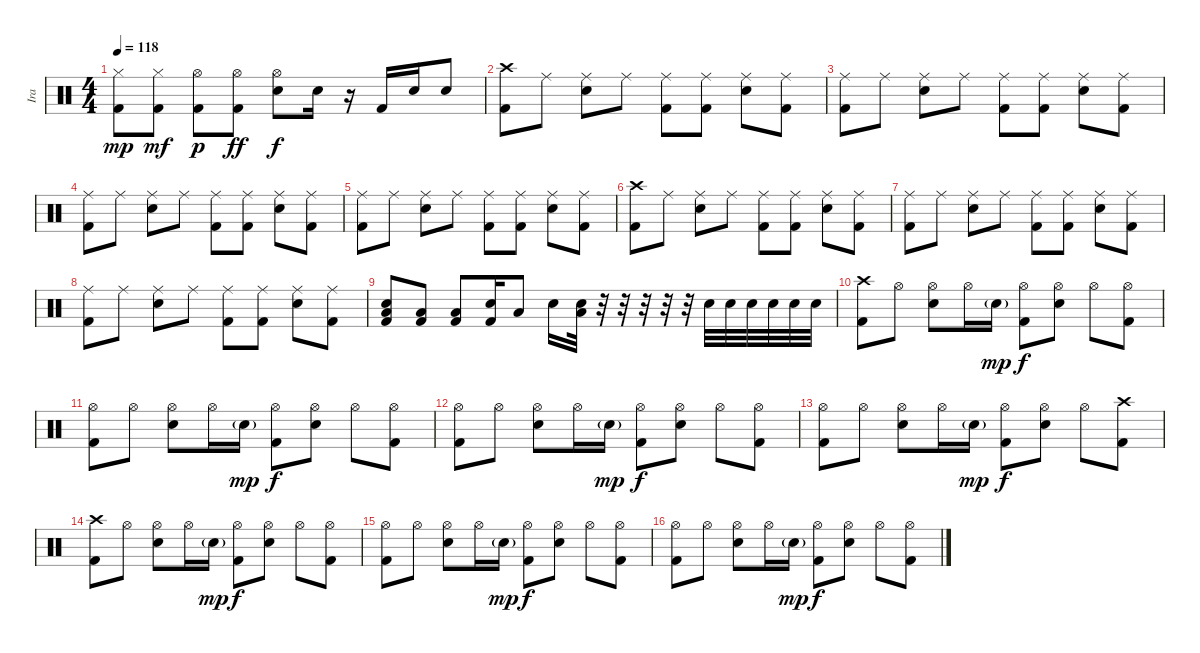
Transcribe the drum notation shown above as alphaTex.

\track ("Ira" "Ira") {instrument percussion}
\staff {score}
\articulation defaults
\ts (4 4)
\tempo 118
\clef neutral
\ks c
("Hi-Hat (closed)" "Kick (hit) 2").8{dy mp} ("Hi-Hat (closed)" "Kick (hit) 2").8{dy mf} ("Hi-Hat (open)" "Kick (hit) 2").8{dy p} ("Hi-Hat (open)" "Kick (hit) 2").8{dy ff} ("Hi-Hat (open)" "Electric Snare (hit)").8{dy f} "Electric Snare (hit)".16 r.16 "Kick (hit) 2".16 "Electric Snare (hit)".16 "Electric Snare (hit)".8 |
("Crash high (hit)" "Kick (hit) 2").8 "Ride (middle)".8 ("Ride (middle)" "Electric Snare (hit)").8 "Ride (middle)".8 ("Ride (middle)" "Kick (hit) 2").8 ("Ride (middle)" "Kick (hit) 2").8 ("Ride (middle)" "Electric Snare (hit)").8 ("Ride (middle)" "Kick (hit) 2").8 |
("Ride (middle)" "Kick (hit) 2").8 "Ride (middle)".8 ("Ride (middle)" "Electric Snare (hit)").8 "Ride (middle)".8 ("Ride (middle)" "Kick (hit) 2").8 ("Ride (middle)" "Kick (hit) 2").8 ("Ride (middle)" "Electric Snare (hit)").8 ("Ride (middle)" "Kick (hit) 2").8 |
("Ride (middle)" "Kick (hit) 2").8 "Ride (middle)".8 ("Ride (middle)" "Electric Snare (hit)").8 "Ride (middle)".8 ("Ride (middle)" "Kick (hit) 2").8 ("Ride (middle)" "Kick (hit) 2").8 ("Ride (middle)" "Electric Snare (hit)").8 ("Ride (middle)" "Kick (hit) 2").8 |
("Ride (middle)" "Kick (hit) 2").8 "Ride (middle)".8 ("Ride (middle)" "Electric Snare (hit)").8 "Ride (middle)".8 ("Ride (middle)" "Kick (hit) 2").8 ("Ride (middle)" "Kick (hit) 2").8 ("Ride (middle)" "Electric Snare (hit)").8 ("Ride (middle)" "Kick (hit) 2").8 |
("Crash high (hit)" "Kick (hit) 2").8 "Ride (middle)".8 ("Ride (middle)" "Electric Snare (hit)").8 "Ride (middle)".8 ("Ride (middle)" "Kick (hit) 2").8 ("Ride (middle)" "Kick (hit) 2").8 ("Ride (middle)" "Electric Snare (hit)").8 ("Ride (middle)" "Kick (hit) 2").8 |
("Ride (middle)" "Kick (hit) 2").8 "Ride (middle)".8 ("Ride (middle)" "Electric Snare (hit)").8 "Ride (middle)".8 ("Ride (middle)" "Kick (hit) 2").8 ("Ride (middle)" "Kick (hit) 2").8 ("Ride (middle)" "Electric Snare (hit)").8 ("Ride (middle)" "Kick (hit) 2").8 |
("Ride (middle)" "Kick (hit) 2").8 "Ride (middle)".8 ("Ride (middle)" "Electric Snare (hit)").8 "Ride (middle)".8 ("Ride (middle)" "Kick (hit) 2").8 ("Ride (middle)" "Kick (hit) 2").8 ("Ride (middle)" "Electric Snare (hit)").8 ("Ride (middle)" "Kick (hit) 2").8 |
("Low Floor Tom (hit)" "Electric Snare (hit)" "Kick (hit) 2").8 ("Low Floor Tom (hit)" "Kick (hit) 2").8 ("Low Floor Tom (hit)" "Kick (hit) 2").8 ("Electric Snare (hit)" "Kick (hit) 2").16 "Low Floor Tom (hit)".8 "Electric Snare (hit)".16 ("Low Floor Tom (hit)" "Electric Snare (hit)").32 r.32 r.32 r.32 r.32 r.32 "Electric Snare (hit)".32 "Electric Snare (hit)".32 "Electric Snare (hit)".32 "Electric Snare (hit)".32 "Electric Snare (hit)".32 "Electric Snare (hit)".32 |
("Crash high (hit)" "Kick (hit) 2").8 "Hi-Hat (open)".8 ("Hi-Hat (open)" "Electric Snare (hit)").8 "Hi-Hat (open)".16 "Electric Snare (hit)"{g}.16{dy mp} ("Hi-Hat (open)" "Kick (hit) 2").8{dy f} ("Hi-Hat (open)" "Electric Snare (hit)").8 "Hi-Hat (open)".8 ("Hi-Hat (open)" "Kick (hit) 2").8 |
("Hi-Hat (open)" "Kick (hit) 2").8 "Hi-Hat (open)".8 ("Hi-Hat (open)" "Electric Snare (hit)").8 "Hi-Hat (open)".16 "Electric Snare (hit)"{g}.16{dy mp} ("Hi-Hat (open)" "Kick (hit) 2").8{dy f} ("Hi-Hat (open)" "Electric Snare (hit)").8 "Hi-Hat (open)".8 ("Hi-Hat (open)" "Kick (hit) 2").8 |
("Hi-Hat (open)" "Kick (hit) 2").8 "Hi-Hat (open)".8 ("Hi-Hat (open)" "Electric Snare (hit)").8 "Hi-Hat (open)".16 "Electric Snare (hit)"{g}.16{dy mp} ("Hi-Hat (open)" "Kick (hit) 2").8{dy f} ("Hi-Hat (open)" "Electric Snare (hit)").8 "Hi-Hat (open)".8 ("Hi-Hat (open)" "Kick (hit) 2").8 |
("Hi-Hat (open)" "Kick (hit) 2").8 "Hi-Hat (open)".8 ("Hi-Hat (open)" "Electric Snare (hit)").8 "Hi-Hat (open)".16 "Electric Snare (hit)"{g}.16{dy mp} ("Hi-Hat (open)" "Kick (hit) 2").8{dy f} ("Hi-Hat (open)" "Electric Snare (hit)").8 "Hi-Hat (open)".8 ("Crash high (hit)" "Kick (hit) 2").8 |
("Crash high (hit)" "Kick (hit) 2").8 "Hi-Hat (open)".8 ("Hi-Hat (open)" "Electric Snare (hit)").8 "Hi-Hat (open)".16 "Electric Snare (hit)"{g}.16{dy mp} ("Hi-Hat (open)" "Kick (hit) 2").8{dy f} ("Hi-Hat (open)" "Electric Snare (hit)").8 "Hi-Hat (open)".8 ("Hi-Hat (open)" "Kick (hit) 2").8 |
("Hi-Hat (open)" "Kick (hit) 2").8 "Hi-Hat (open)".8 ("Hi-Hat (open)" "Electric Snare (hit)").8 "Hi-Hat (open)".16 "Electric Snare (hit)"{g}.16{dy mp} ("Hi-Hat (open)" "Kick (hit) 2").8{dy f} ("Hi-Hat (open)" "Electric Snare (hit)").8 "Hi-Hat (open)".8 ("Hi-Hat (open)" "Kick (hit) 2").8 |
("Hi-Hat (open)" "Kick (hit) 2").8 "Hi-Hat (open)".8 ("Hi-Hat (open)" "Electric Snare (hit)").8 "Hi-Hat (open)".16 "Electric Snare (hit)"{g}.16{dy mp} ("Hi-Hat (open)" "Kick (hit) 2").8{dy f} ("Hi-Hat (open)" "Electric Snare (hit)").8 "Hi-Hat (open)".8 ("Hi-Hat (open)" "Kick (hit) 2").8
